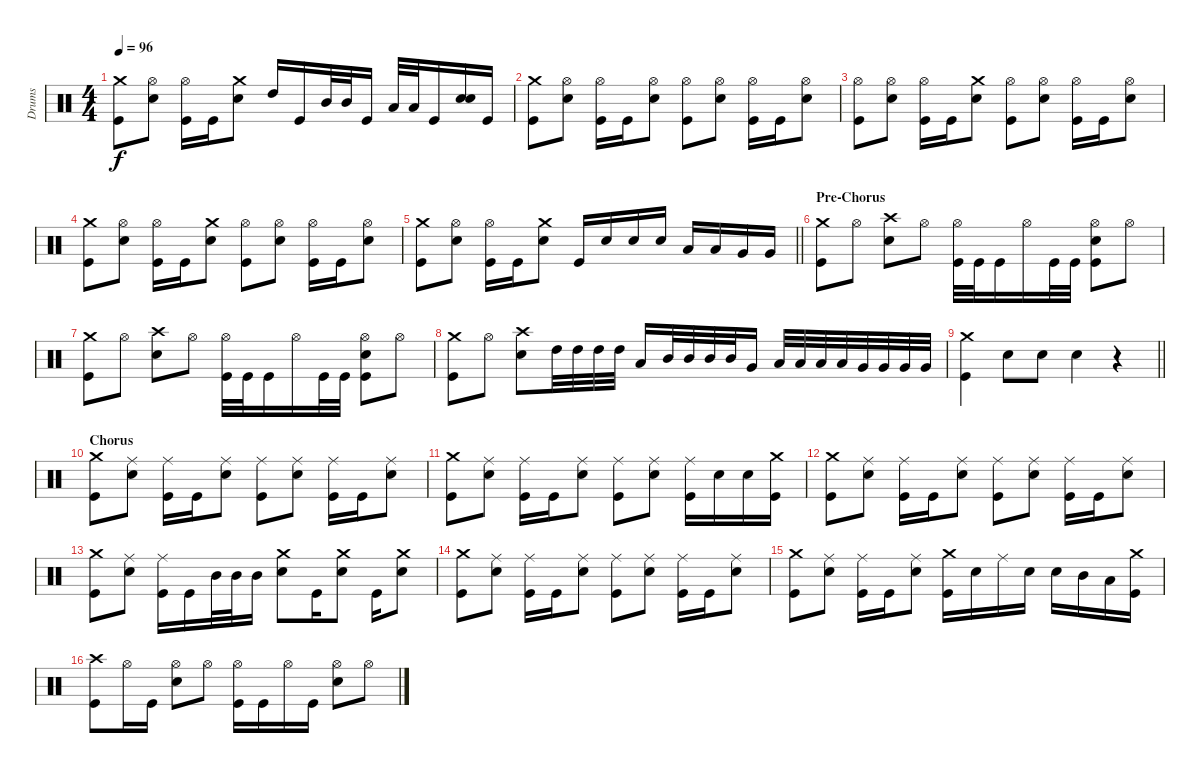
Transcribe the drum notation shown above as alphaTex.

\track ("Drums" "Drums") {instrument percussion}
\staff {score}
\articulation defaults
\ts (4 4)
\tempo 96
\clef neutral
\ks c
("Crash medium (hit)" "Kick (hit)").8{dy f} ("Hi-Hat (open)" "Electric Snare (hit)").8 ("Hi-Hat (open)" "Kick (hit)").16 "Kick (hit)".16 ("Crash medium (hit)" "Electric Snare (hit)").8 "High Tom (hit)".16 "Kick (hit)".16 "Mid Tom (hit)".32 "Mid Tom (hit)".32 "Kick (hit)".16 "Low Tom (hit)".32 "Low Tom (hit)".32 "Kick (hit)".16 ("Electric Snare (hit)" "Electric Snare (hit)").16{bd 60} "Kick (hit)".16 |
("Crash medium (hit)" "Kick (hit)").8 ("Hi-Hat (open)" "Electric Snare (hit)").8 ("Hi-Hat (open)" "Kick (hit)").16 "Kick (hit)".16 ("Hi-Hat (open)" "Electric Snare (hit)").8 ("Hi-Hat (open)" "Kick (hit)").8 ("Hi-Hat (open)" "Electric Snare (hit)").8 ("Hi-Hat (open)" "Kick (hit)").16 "Kick (hit)".16 ("Hi-Hat (open)" "Electric Snare (hit)").8 |
("Hi-Hat (open)" "Kick (hit)").8 ("Hi-Hat (open)" "Electric Snare (hit)").8 ("Hi-Hat (open)" "Kick (hit)").16 "Kick (hit)".16 ("Crash medium (hit)" "Electric Snare (hit)").8 ("Hi-Hat (open)" "Kick (hit)").8 ("Hi-Hat (open)" "Electric Snare (hit)").8 ("Hi-Hat (open)" "Kick (hit)").16 "Kick (hit)".16 ("Hi-Hat (open)" "Electric Snare (hit)").8 |
("Crash medium (hit)" "Kick (hit)").8 ("Hi-Hat (open)" "Electric Snare (hit)").8 ("Hi-Hat (open)" "Kick (hit)").16 "Kick (hit)".16 ("Crash medium (hit)" "Electric Snare (hit)").8 ("Hi-Hat (open)" "Kick (hit)").8 ("Hi-Hat (open)" "Electric Snare (hit)").8 ("Hi-Hat (open)" "Kick (hit)").16 "Kick (hit)".16 ("Hi-Hat (open)" "Electric Snare (hit)").8 |
\barLineRight lightlight
("Crash medium (hit)" "Kick (hit)").8 ("Hi-Hat (open)" "Electric Snare (hit)").8 ("Hi-Hat (open)" "Kick (hit)").16 "Kick (hit)".16 ("Crash medium (hit)" "Electric Snare (hit)").8 "Kick (hit)".16 "Electric Snare (hit)".16 "Electric Snare (hit)".16 "Electric Snare (hit)".16 "Low Tom (hit)".16 "Low Tom (hit)".16 "Very Low Tom (hit)".16 "Very Low Tom (hit)".16 |
\section ("" "Pre-Chorus")
("Crash medium (hit)" "Kick (hit)").8 "Hi-Hat (open)".8 ("Crash high (hit)" "Electric Snare (hit)").8 "Hi-Hat (open)".8 ("Hi-Hat (open)" "Kick (hit)").32 "Kick (hit)".32 "Kick (hit)".16 "Hi-Hat (open)".16 "Kick (hit)".32 "Kick (hit)".32 ("Hi-Hat (open)" "Electric Snare (hit)" "Kick (hit)").8 "Hi-Hat (open)".8 |
("Crash medium (hit)" "Kick (hit)").8 "Hi-Hat (open)".8 ("Crash high (hit)" "Electric Snare (hit)").8 "Hi-Hat (open)".8 ("Hi-Hat (open)" "Kick (hit)").32 "Kick (hit)".32 "Kick (hit)".16 "Hi-Hat (open)".16 "Kick (hit)".32 "Kick (hit)".32 ("Hi-Hat (open)" "Electric Snare (hit)" "Kick (hit)").8 "Hi-Hat (open)".8 |
("Crash medium (hit)" "Kick (hit)").8 "Hi-Hat (open)".8 ("Crash high (hit)" "Electric Snare (hit)").8 "High Tom (hit)".32 "High Tom (hit)".32 "High Tom (hit)".32 "High Tom (hit)".32 "Low Tom (hit)".16 "Mid Tom (hit)".32 "Mid Tom (hit)".32 "Mid Tom (hit)".32 "Mid Tom (hit)".32 "Very Low Tom (hit)".16 "Low Tom (hit)".32 "Low Tom (hit)".32 "Low Tom (hit)".32 "Low Tom (hit)".32 "Very Low Tom (hit)".32 "Very Low Tom (hit)".32 "Very Low Tom (hit)".32 "Very Low Tom (hit)".32 |
\barLineRight lightlight
("Crash medium (hit)" "Kick (hit)").4 "Electric Snare (hit)".8 "Electric Snare (hit)".8 "Electric Snare (hit)".4 r.4 |
\section ("" "Chorus")
("Crash medium (hit)" "Kick (hit)").8 ("Ride (middle)" "Electric Snare (hit)").8 ("Ride (middle)" "Kick (hit)").16 "Kick (hit)".16 ("Ride (middle)" "Electric Snare (hit)").8 ("Ride (middle)" "Kick (hit)").8 ("Ride (middle)" "Electric Snare (hit)").8 ("Ride (middle)" "Kick (hit)").16 "Kick (hit)".16 ("Ride (middle)" "Electric Snare (hit)").8 |
("Crash medium (hit)" "Kick (hit)").8 ("Ride (middle)" "Electric Snare (hit)").8 ("Ride (middle)" "Kick (hit)").16 "Kick (hit)".16 ("Ride (middle)" "Electric Snare (hit)").8 ("Ride (middle)" "Kick (hit)").8 ("Ride (middle)" "Electric Snare (hit)").8 ("Ride (middle)" "Kick (hit)").16 "Electric Snare (hit)".16 "Electric Snare (hit)".16 ("Crash medium (hit)" "Kick (hit)").16 |
("Crash medium (hit)" "Kick (hit)").8 ("Ride (middle)" "Electric Snare (hit)").8 ("Ride (middle)" "Kick (hit)").16 "Kick (hit)".16 ("Ride (middle)" "Electric Snare (hit)").8 ("Ride (middle)" "Kick (hit)").8 ("Ride (middle)" "Electric Snare (hit)").8 ("Ride (middle)" "Kick (hit)").16 "Kick (hit)".16 ("Ride (middle)" "Electric Snare (hit)").8 |
("Crash medium (hit)" "Kick (hit)").8 ("Ride (middle)" "Electric Snare (hit)").8 ("Ride (middle)" "Kick (hit)").16 "Kick (hit)".16 "Mid Tom (hit)".32 "Mid Tom (hit)".32 "Mid Tom (hit)".16 ("Crash medium (hit)" "Electric Snare (hit)").8 "Kick (hit)".16 ("Crash medium (hit)" "Electric Snare (hit)").8 "Kick (hit)".16 ("Crash medium (hit)" "Electric Snare (hit)").8 |
("Crash medium (hit)" "Kick (hit)").8 ("Ride (middle)" "Electric Snare (hit)").8 ("Ride (middle)" "Kick (hit)").16 "Kick (hit)".16 ("Ride (middle)" "Electric Snare (hit)").8 ("Ride (middle)" "Kick (hit)").8 ("Ride (middle)" "Electric Snare (hit)").8 ("Ride (middle)" "Kick (hit)").16 "Kick (hit)".16 ("Ride (middle)" "Electric Snare (hit)").8 |
("Crash medium (hit)" "Kick (hit)").8 ("Ride (middle)" "Electric Snare (hit)").8 ("Ride (middle)" "Kick (hit)").16 "Kick (hit)".16 ("Ride (middle)" "Electric Snare (hit)").8 ("Crash medium (hit)" "Kick (hit)").16 "Electric Snare (hit)".16 "Ride (middle)".16 "Electric Snare (hit)".16 "Electric Snare (hit)".16 "Mid Tom (hit)".16 "Low Tom (hit)".16 ("Crash medium (hit)" "Kick (hit)").16 |
("Crash high (hit)" "Kick (hit)").8 "Hi-Hat (open)".16 "Kick (hit)".16 ("Hi-Hat (open)" "Electric Snare (hit)").8 "Hi-Hat (open)".8 ("Hi-Hat (open)" "Kick (hit)").16 "Kick (hit)".16 "Hi-Hat (open)".16 "Kick (hit)".16 ("Hi-Hat (open)" "Electric Snare (hit)").8 "Hi-Hat (open)".8
